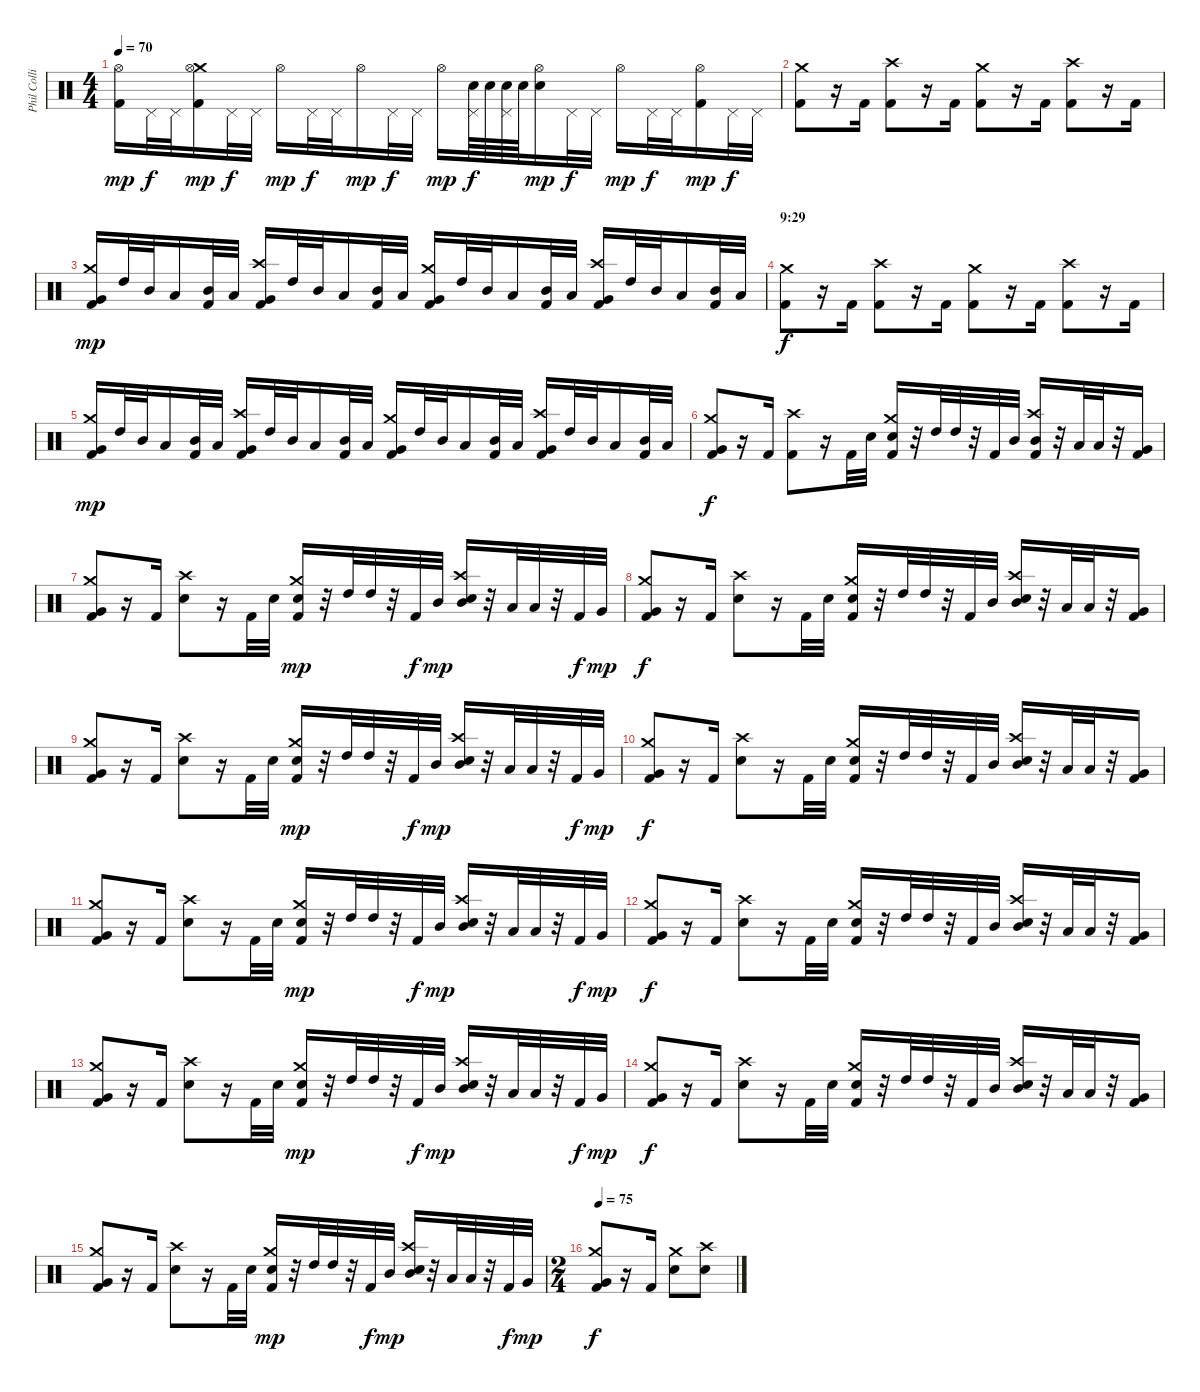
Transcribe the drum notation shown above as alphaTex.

\track ("Phil Collins (drums)" "Phil Colli") {instrument percussion}
\staff {score}
\articulation defaults
\ts (4 4)
\tempo 70
\clef neutral
\ks c
("Hi-Hat (open)" "Kick (hit) 2").16{dy mp} "Pedal Hi-Hat (hit)".32{dy f} "Pedal Hi-Hat (hit)".32 ("Crash medium (hit)" "Hi-Hat (open)" "Kick (hit) 2").16{dy mp} "Pedal Hi-Hat (hit)".32{dy f} "Pedal Hi-Hat (hit)".32 "Hi-Hat (open)".16{dy mp} "Pedal Hi-Hat (hit)".32{dy f} "Pedal Hi-Hat (hit)".32 "Hi-Hat (open)".16{dy mp} "Pedal Hi-Hat (hit)".32{dy f} "Pedal Hi-Hat (hit)".32 "Hi-Hat (open)".16{dy mp} ("Electric Snare (hit)" "Pedal Hi-Hat (hit)").64{dy f} "Electric Snare (hit)".64 ("Electric Snare (hit)" "Pedal Hi-Hat (hit)").64 "Electric Snare (hit)".64 ("Electric Snare (hit)" "Hi-Hat (open)").16{dy mp} "Pedal Hi-Hat (hit)".32{dy f} "Pedal Hi-Hat (hit)".32 "Hi-Hat (open)".16{dy mp} "Pedal Hi-Hat (hit)".32{dy f} "Pedal Hi-Hat (hit)".32 ("Hi-Hat (open)" "Kick (hit) 2").16{dy mp} "Pedal Hi-Hat (hit)".32{dy f} "Pedal Hi-Hat (hit)".32 |
("Crash medium (hit)" "Kick (hit) 2").8 r.16 "Kick (hit) 2".16 ("Crash high (hit)" "Kick (hit) 2").8 r.16 "Kick (hit) 2".16 ("Crash medium (hit)" "Kick (hit) 2").8 r.16 "Kick (hit) 2".16 ("Crash high (hit)" "Kick (hit) 2").8 r.16 "Kick (hit) 2".16 |
("Crash medium (hit)" "Very Low Tom (hit)" "Kick (hit) 2").16{dy mp} "High Tom (hit)".32 "Mid Tom (hit)".32 "Low Tom (hit)".16 ("Mid Tom (hit)" "Kick (hit) 2").32 "Low Tom (hit)".32 ("Crash high (hit)" "Very Low Tom (hit)" "Kick (hit) 2").16 "High Tom (hit)".32 "Mid Tom (hit)".32 "Low Tom (hit)".16 ("Mid Tom (hit)" "Kick (hit) 2").32 "Low Tom (hit)".32 ("Crash medium (hit)" "Very Low Tom (hit)" "Kick (hit) 2").16 "High Tom (hit)".32 "Mid Tom (hit)".32 "Low Tom (hit)".16 ("Mid Tom (hit)" "Kick (hit) 2").32 "Low Tom (hit)".32 ("Crash high (hit)" "Very Low Tom (hit)" "Kick (hit) 2").16 "High Tom (hit)".32 "Mid Tom (hit)".32 "Low Tom (hit)".16 ("Mid Tom (hit)" "Kick (hit) 2").32 "Low Tom (hit)".32 |
\section ("" "9:29")
("Crash medium (hit)" "Kick (hit) 2").8{dy f} r.16 "Kick (hit) 2".16 ("Crash high (hit)" "Kick (hit) 2").8 r.16 "Kick (hit) 2".16 ("Crash medium (hit)" "Kick (hit) 2").8 r.16 "Kick (hit) 2".16 ("Crash high (hit)" "Kick (hit) 2").8 r.16 "Kick (hit) 2".16 |
("Crash medium (hit)" "Very Low Tom (hit)" "Kick (hit) 2").16{dy mp} "High Tom (hit)".32 "Mid Tom (hit)".32 "Low Tom (hit)".16 ("Mid Tom (hit)" "Kick (hit) 2").32 "Low Tom (hit)".32 ("Crash high (hit)" "Very Low Tom (hit)" "Kick (hit) 2").16 "High Tom (hit)".32 "Mid Tom (hit)".32 "Low Tom (hit)".16 ("Mid Tom (hit)" "Kick (hit) 2").32 "Low Tom (hit)".32 ("Crash medium (hit)" "Very Low Tom (hit)" "Kick (hit) 2").16 "High Tom (hit)".32 "Mid Tom (hit)".32 "Low Tom (hit)".16 ("Mid Tom (hit)" "Kick (hit) 2").32 "Low Tom (hit)".32 ("Crash high (hit)" "Very Low Tom (hit)" "Kick (hit) 2").16 "High Tom (hit)".32 "Mid Tom (hit)".32 "Low Tom (hit)".16 ("Mid Tom (hit)" "Kick (hit) 2").32 "Low Tom (hit)".32 |
("Crash medium (hit)" "Very Low Tom (hit)" "Kick (hit) 2").8{dy f} r.16 "Kick (hit) 2".16 ("Crash high (hit)" "Kick (hit) 2").8 r.16 "Kick (hit) 2".32 "Electric Snare (hit)".32 ("Crash medium (hit)" "Electric Snare (hit)" "Kick (hit) 2").16 r.32 "High Tom (hit)".32 "High Tom (hit)".32 r.32 "Kick (hit) 2".32 "Mid Tom (hit)".32 ("Crash high (hit)" "Mid Tom (hit)" "Kick (hit) 2").16 r.32 "Low Tom (hit)".32 "Low Tom (hit)".32 r.32 ("Very Low Tom (hit)" "Kick (hit) 2").16 |
("Crash medium (hit)" "Very Low Tom (hit)" "Kick (hit) 2").8 r.16 "Kick (hit) 2".16 ("Crash high (hit)" "Electric Snare (hit)").8 r.16 "Kick (hit) 2".32 "Electric Snare (hit)".32 ("Crash medium (hit)" "Electric Snare (hit)" "Kick (hit) 2").16{dy mp} r.32 "High Tom (hit)".32 "High Tom (hit)".32 r.32 "Kick (hit) 2".32{dy f} "Mid Tom (hit)".32{dy mp} ("Crash high (hit)" "Mid Tom (hit)" "Electric Snare (hit)").16 r.32 "Low Tom (hit)".32 "Low Tom (hit)".32 r.32 "Kick (hit) 2".32{dy f} "Very Low Tom (hit)".32{dy mp} |
("Crash medium (hit)" "Very Low Tom (hit)" "Kick (hit) 2").8{dy f} r.16 "Kick (hit) 2".16 ("Crash high (hit)" "Electric Snare (hit)").8 r.16 "Kick (hit) 2".32 "Electric Snare (hit)".32 ("Crash medium (hit)" "Electric Snare (hit)" "Kick (hit) 2").16 r.32 "High Tom (hit)".32 "High Tom (hit)".32 r.32 "Kick (hit) 2".32 "Mid Tom (hit)".32 ("Crash high (hit)" "Mid Tom (hit)" "Electric Snare (hit)").16 r.32 "Low Tom (hit)".32 "Low Tom (hit)".32 r.32 ("Very Low Tom (hit)" "Kick (hit) 2").16 |
("Crash medium (hit)" "Very Low Tom (hit)" "Kick (hit) 2").8 r.16 "Kick (hit) 2".16 ("Crash high (hit)" "Electric Snare (hit)").8 r.16 "Kick (hit) 2".32 "Electric Snare (hit)".32 ("Crash medium (hit)" "Electric Snare (hit)" "Kick (hit) 2").16{dy mp} r.32 "High Tom (hit)".32 "High Tom (hit)".32 r.32 "Kick (hit) 2".32{dy f} "Mid Tom (hit)".32{dy mp} ("Crash high (hit)" "Mid Tom (hit)" "Electric Snare (hit)").16 r.32 "Low Tom (hit)".32 "Low Tom (hit)".32 r.32 "Kick (hit) 2".32{dy f} "Very Low Tom (hit)".32{dy mp} |
("Crash medium (hit)" "Very Low Tom (hit)" "Kick (hit) 2").8{dy f} r.16 "Kick (hit) 2".16 ("Crash high (hit)" "Electric Snare (hit)").8 r.16 "Kick (hit) 2".32 "Electric Snare (hit)".32 ("Crash medium (hit)" "Electric Snare (hit)" "Kick (hit) 2").16 r.32 "High Tom (hit)".32 "High Tom (hit)".32 r.32 "Kick (hit) 2".32 "Mid Tom (hit)".32 ("Crash high (hit)" "Mid Tom (hit)" "Electric Snare (hit)").16 r.32 "Low Tom (hit)".32 "Low Tom (hit)".32 r.32 ("Very Low Tom (hit)" "Kick (hit) 2").16 |
("Crash medium (hit)" "Very Low Tom (hit)" "Kick (hit) 2").8 r.16 "Kick (hit) 2".16 ("Crash high (hit)" "Electric Snare (hit)").8 r.16 "Kick (hit) 2".32 "Electric Snare (hit)".32 ("Crash medium (hit)" "Electric Snare (hit)" "Kick (hit) 2").16{dy mp} r.32 "High Tom (hit)".32 "High Tom (hit)".32 r.32 "Kick (hit) 2".32{dy f} "Mid Tom (hit)".32{dy mp} ("Crash high (hit)" "Mid Tom (hit)" "Electric Snare (hit)").16 r.32 "Low Tom (hit)".32 "Low Tom (hit)".32 r.32 "Kick (hit) 2".32{dy f} "Very Low Tom (hit)".32{dy mp} |
("Crash medium (hit)" "Very Low Tom (hit)" "Kick (hit) 2").8{dy f} r.16 "Kick (hit) 2".16 ("Crash high (hit)" "Electric Snare (hit)").8 r.16 "Kick (hit) 2".32 "Electric Snare (hit)".32 ("Crash medium (hit)" "Electric Snare (hit)" "Kick (hit) 2").16 r.32 "High Tom (hit)".32 "High Tom (hit)".32 r.32 "Kick (hit) 2".32 "Mid Tom (hit)".32 ("Crash high (hit)" "Mid Tom (hit)" "Electric Snare (hit)").16 r.32 "Low Tom (hit)".32 "Low Tom (hit)".32 r.32 ("Very Low Tom (hit)" "Kick (hit) 2").16 |
("Crash medium (hit)" "Very Low Tom (hit)" "Kick (hit) 2").8 r.16 "Kick (hit) 2".16 ("Crash high (hit)" "Electric Snare (hit)").8 r.16 "Kick (hit) 2".32 "Electric Snare (hit)".32 ("Crash medium (hit)" "Electric Snare (hit)" "Kick (hit) 2").16{dy mp} r.32 "High Tom (hit)".32 "High Tom (hit)".32 r.32 "Kick (hit) 2".32{dy f} "Mid Tom (hit)".32{dy mp} ("Crash high (hit)" "Mid Tom (hit)" "Electric Snare (hit)").16 r.32 "Low Tom (hit)".32 "Low Tom (hit)".32 r.32 "Kick (hit) 2".32{dy f} "Very Low Tom (hit)".32{dy mp} |
("Crash medium (hit)" "Very Low Tom (hit)" "Kick (hit) 2").8{dy f} r.16 "Kick (hit) 2".16 ("Crash high (hit)" "Electric Snare (hit)").8 r.16 "Kick (hit) 2".32 "Electric Snare (hit)".32 ("Crash medium (hit)" "Electric Snare (hit)" "Kick (hit) 2").16 r.32 "High Tom (hit)".32 "High Tom (hit)".32 r.32 "Kick (hit) 2".32 "Mid Tom (hit)".32 ("Crash high (hit)" "Mid Tom (hit)" "Electric Snare (hit)").16 r.32 "Low Tom (hit)".32 "Low Tom (hit)".32 r.32 ("Very Low Tom (hit)" "Kick (hit) 2").16 |
("Crash medium (hit)" "Very Low Tom (hit)" "Kick (hit) 2").8 r.16 "Kick (hit) 2".16 ("Crash high (hit)" "Electric Snare (hit)").8 r.16 "Kick (hit) 2".32 "Electric Snare (hit)".32 ("Crash medium (hit)" "Electric Snare (hit)" "Kick (hit) 2").16{dy mp} r.32 "High Tom (hit)".32 "High Tom (hit)".32 r.32 "Kick (hit) 2".32{dy f} "Mid Tom (hit)".32{dy mp} ("Crash high (hit)" "Mid Tom (hit)" "Electric Snare (hit)").16 r.32 "Low Tom (hit)".32 "Low Tom (hit)".32 r.32 "Kick (hit) 2".32{dy f} "Very Low Tom (hit)".32{dy mp} |
\ts (2 4)
\tempo 75
("Crash medium (hit)" "Very Low Tom (hit)" "Kick (hit) 2").8{dy f} r.16 "Kick (hit) 2".16 ("Crash medium (hit)" "Electric Snare (hit)").8 ("Crash high (hit)" "Electric Snare (hit)").8
